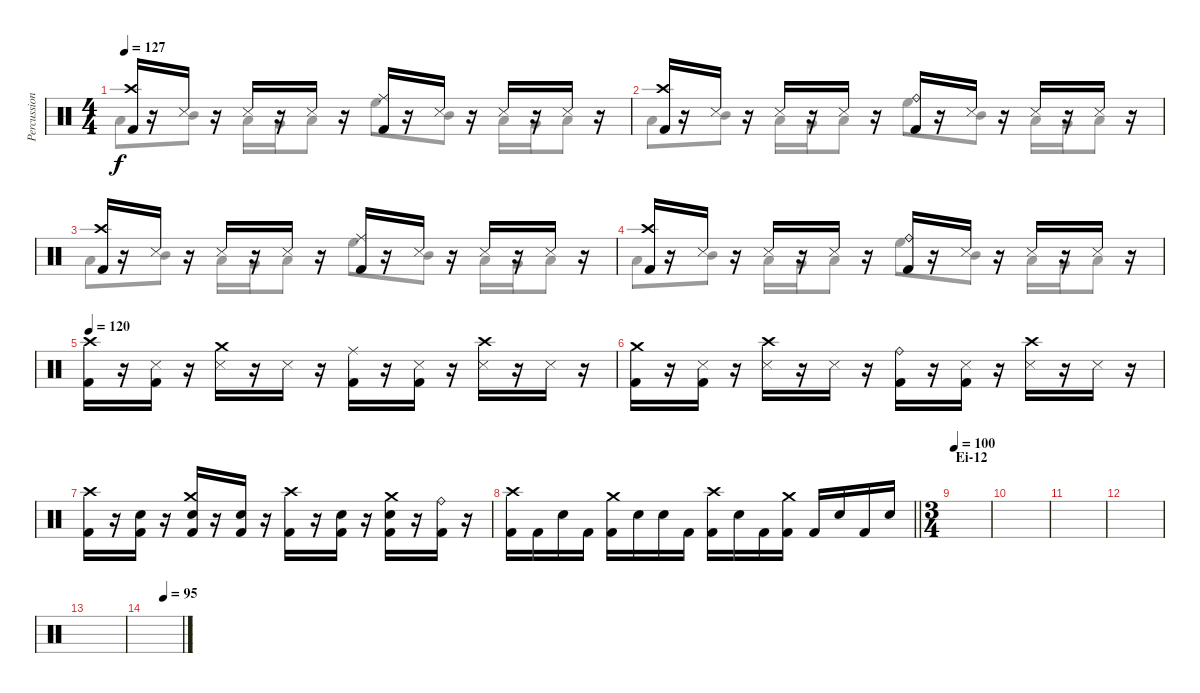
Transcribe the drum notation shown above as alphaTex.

\track ("Percussion" "Percussion") {instrument percussion}
\staff {score}
\articulation defaults
\voice
\ts (4 4)
\tempo 127
\clef neutral
\ks c
("Crash high (hit)" "Kick (hit) 2").16{dy f} r.16 "Metronome (hit)".16 r.16 "Metronome (hit)".16 r.16 "Metronome (hit)".16 r.16 ("Ride (middle)" "Kick (hit) 2").16 r.16 "Metronome (hit)".16 r.16 "Metronome (hit)".16 r.16 "Metronome (hit)".16 r.16 |
("Crash high (hit)" "Kick (hit) 2").16 r.16 "Metronome (hit)".16 r.16 "Metronome (hit)".16 r.16 "Metronome (hit)".16 r.16 ("Ride (bell)" "Kick (hit) 2").16 r.16 "Metronome (hit)".16 r.16 "Metronome (hit)".16 r.16 "Metronome (hit)".16 r.16 |
("Crash high (hit)" "Kick (hit) 2").16 r.16 "Metronome (hit)".16 r.16 "Metronome (hit)".16 r.16 "Metronome (hit)".16 r.16 ("Ride (middle)" "Kick (hit) 2").16 r.16 "Metronome (hit)".16 r.16 "Metronome (hit)".16 r.16 "Metronome (hit)".16 r.16 |
("Crash high (hit)" "Kick (hit) 2").16 r.16 "Metronome (hit)".16 r.16 "Metronome (hit)".16 r.16 "Metronome (hit)".16 r.16 ("Ride (bell)" "Kick (hit) 2").16 r.16 "Metronome (hit)".16 r.16 "Metronome (hit)".16 r.16 "Metronome (hit)".16 r.16 |
\tempo 120
("Crash high (hit)" "Kick (hit) 2").16 r.16 ("Metronome (hit)" "Kick (hit) 2").16 r.16 ("Crash medium (hit)" "Metronome (hit)").16 r.16 "Metronome (hit)".16 r.16 ("Ride (middle)" "Kick (hit) 2").16 r.16 ("Metronome (hit)" "Kick (hit) 2").16 r.16 ("Crash high (hit)" "Metronome (hit)").16 r.16 "Metronome (hit)".16 r.16 |
("Crash medium (hit)" "Kick (hit) 2").16 r.16 ("Metronome (hit)" "Kick (hit) 2").16 r.16 ("Crash high (hit)" "Metronome (hit)").16 r.16 "Metronome (hit)".16 r.16 ("Ride (bell)" "Kick (hit) 2").16 r.16 ("Metronome (hit)" "Kick (hit) 2").16 r.16 ("Crash high (hit)" "Metronome (hit)").16 r.16 "Metronome (hit)".16 r.16 |
("Crash high (hit)" "Kick (hit) 2").16 r.16 ("Electric Snare (hit)" "Kick (hit) 2").16 r.16 ("Crash medium (hit)" "Electric Snare (hit)" "Kick (hit) 2").16 r.16 ("Electric Snare (hit)" "Kick (hit) 2").16 r.16 ("Crash high (hit)" "Kick (hit) 2").16 r.16 ("Electric Snare (hit)" "Kick (hit) 2").16 r.16 ("Crash medium (hit)" "Electric Snare (hit)" "Kick (hit) 2").16 r.16 ("Ride (bell)" "Kick (hit) 2").16 r.16 |
\barLineRight lightlight
("Crash high (hit)" "Kick (hit) 2").16 "Kick (hit) 2".16 "Electric Snare (hit)".16 "Kick (hit) 2".16 ("Crash medium (hit)" "Kick (hit) 2").16 "Electric Snare (hit)".16 "Electric Snare (hit)".16 "Kick (hit) 2".16 ("Crash high (hit)" "Kick (hit) 2").16 "Electric Snare (hit)".16 "Kick (hit) 2".16 ("Crash medium (hit)" "Kick (hit) 2").16 "Kick (hit) 2".16 "Electric Snare (hit)".16 "Kick (hit) 2".16 "Electric Snare (hit)".16 |
\ts (3 4)
\section ("" "Ei-12")
\tempo 100
|
|
|
|
|
\tempo (95 0.5)
|
|
\voice
\clef neutral
\ottava regular
\simile none
\ks c "Low Floor Tom (hit)".8{dy f} "Mid Tom (hit)".8 "Low Tom (hit)".16 "Very Low Tom (hit)".16 "Low Floor Tom (hit)".8 "High Floor Tom (hit)".8 "Mid Tom (hit)".8 "Low Tom (hit)".16 "Very Low Tom (hit)".16 "Low Floor Tom (hit)".8
|
"Low Floor Tom (hit)".8 "Mid Tom (hit)".8 "Low Tom (hit)".16 "Very Low Tom (hit)".16 "Low Floor Tom (hit)".8 "High Floor Tom (hit)".8 "Mid Tom (hit)".8 "Low Tom (hit)".16 "Very Low Tom (hit)".16 "Low Floor Tom (hit)".8 |
"Low Floor Tom (hit)".8 "Mid Tom (hit)".8 "Low Tom (hit)".16 "Very Low Tom (hit)".16 "Low Floor Tom (hit)".8 "High Floor Tom (hit)".8 "Mid Tom (hit)".8 "Low Tom (hit)".16 "Very Low Tom (hit)".16 "Low Floor Tom (hit)".8 |
"Low Floor Tom (hit)".8 "Mid Tom (hit)".8 "Low Tom (hit)".16 "Very Low Tom (hit)".16 "Low Floor Tom (hit)".8 "High Floor Tom (hit)".8 "Mid Tom (hit)".8 "Low Tom (hit)".16 "Very Low Tom (hit)".16 "Low Floor Tom (hit)".8 |
|
|
|
\barLineRight lightlight
|
|
|
|
|
|
|
|
